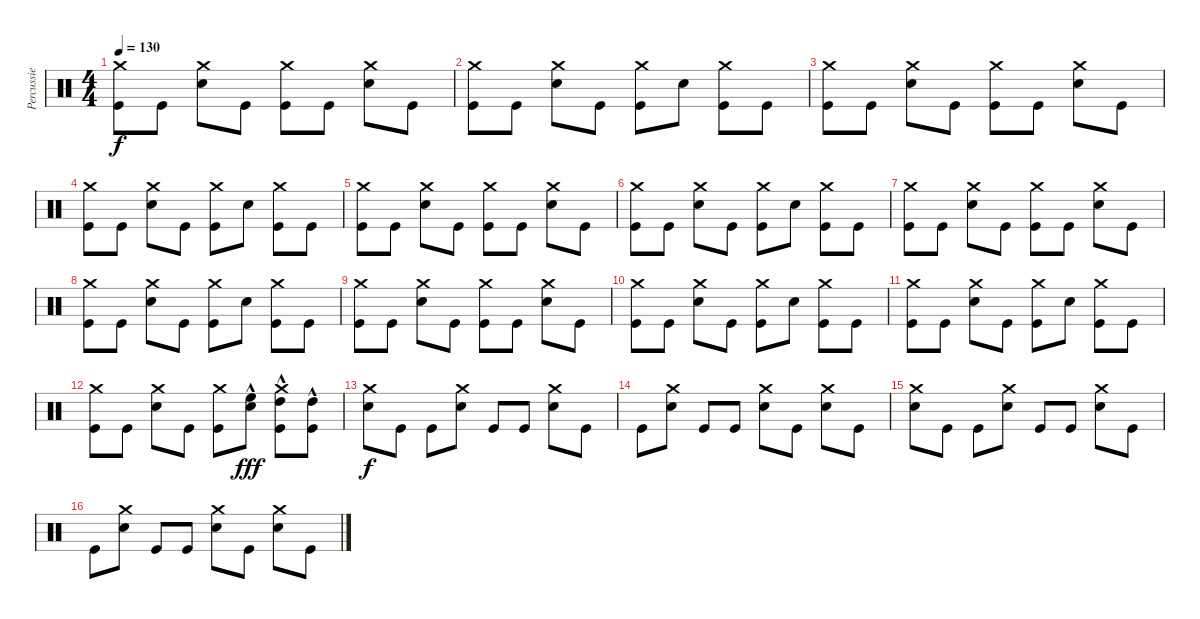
\track ("Percussie" "Percussie") {instrument percussion}
\staff {score}
\articulation defaults
\ts (4 4)
\tempo 130
\clef neutral
\ks c
("Crash medium (hit)" "Kick (hit)").8{dy f} "Kick (hit)".8 ("Crash medium (hit)" "Snare (hit) 2").8 "Kick (hit)".8 ("Crash medium (hit)" "Kick (hit)").8 "Kick (hit)".8 ("Crash medium (hit)" "Snare (hit) 2").8 "Kick (hit)".8 |
("Crash medium (hit)" "Kick (hit)").8 "Kick (hit)".8 ("Crash medium (hit)" "Snare (hit) 2").8 "Kick (hit)".8 ("Crash medium (hit)" "Kick (hit)").8 "Snare (hit) 2".8 ("Crash medium (hit)" "Kick (hit)").8 "Kick (hit)".8 |
("Crash medium (hit)" "Kick (hit)").8 "Kick (hit)".8 ("Crash medium (hit)" "Snare (hit) 2").8 "Kick (hit)".8 ("Crash medium (hit)" "Kick (hit)").8 "Kick (hit)".8 ("Crash medium (hit)" "Snare (hit) 2").8 "Kick (hit)".8 |
("Crash medium (hit)" "Kick (hit)").8 "Kick (hit)".8 ("Crash medium (hit)" "Snare (hit) 2").8 "Kick (hit)".8 ("Crash medium (hit)" "Kick (hit)").8 "Snare (hit) 2".8 ("Crash medium (hit)" "Kick (hit)").8 "Kick (hit)".8 |
("Crash medium (hit)" "Kick (hit)").8 "Kick (hit)".8 ("Crash medium (hit)" "Snare (hit) 2").8 "Kick (hit)".8 ("Crash medium (hit)" "Kick (hit)").8 "Kick (hit)".8 ("Crash medium (hit)" "Snare (hit) 2").8 "Kick (hit)".8 |
("Crash medium (hit)" "Kick (hit)").8 "Kick (hit)".8 ("Crash medium (hit)" "Snare (hit) 2").8 "Kick (hit)".8 ("Crash medium (hit)" "Kick (hit)").8 "Snare (hit) 2".8 ("Crash medium (hit)" "Kick (hit)").8 "Kick (hit)".8 |
("Crash medium (hit)" "Kick (hit)").8 "Kick (hit)".8 ("Crash medium (hit)" "Snare (hit) 2").8 "Kick (hit)".8 ("Crash medium (hit)" "Kick (hit)").8 "Kick (hit)".8 ("Crash medium (hit)" "Snare (hit) 2").8 "Kick (hit)".8 |
("Crash medium (hit)" "Kick (hit)").8 "Kick (hit)".8 ("Crash medium (hit)" "Snare (hit) 2").8 "Kick (hit)".8 ("Crash medium (hit)" "Kick (hit)").8 "Snare (hit) 2".8 ("Crash medium (hit)" "Kick (hit)").8 "Kick (hit)".8 |
("Crash medium (hit)" "Kick (hit)").8 "Kick (hit)".8 ("Crash medium (hit)" "Snare (hit) 2").8 "Kick (hit)".8 ("Crash medium (hit)" "Kick (hit)").8 "Kick (hit)".8 ("Crash medium (hit)" "Snare (hit) 2").8 "Kick (hit)".8 |
("Crash medium (hit)" "Kick (hit)").8 "Kick (hit)".8 ("Crash medium (hit)" "Snare (hit) 2").8 "Kick (hit)".8 ("Crash medium (hit)" "Kick (hit)").8 "Snare (hit) 2".8 ("Crash medium (hit)" "Kick (hit)").8 "Kick (hit)".8 |
("Crash medium (hit)" "Kick (hit)").8 "Kick (hit)".8 ("Crash medium (hit)" "Snare (hit) 2").8 "Kick (hit)".8 ("Crash medium (hit)" "Kick (hit)").8 "Snare (hit) 2".8 ("Crash medium (hit)" "Kick (hit)").8 "Kick (hit)".8 |
("Crash medium (hit)" "Kick (hit)").8 "Kick (hit)".8 ("Crash medium (hit)" "Snare (hit) 2").8 "Kick (hit)".8 ("Crash medium (hit)" "Kick (hit)").8 ("High Floor Tom (hit)"{hac} "Snare (hit) 2").8{dy fff} ("High Tom (hit)"{hac} "Crash medium (hit)" "Kick (hit)").8 ("High Tom (hit)"{hac} "Kick (hit)").8 |
("Crash medium (hit)" "Snare (hit) 2").8{dy f} "Kick (hit)".8 "Kick (hit)".8 ("Crash medium (hit)" "Snare (hit) 2").8 "Kick (hit)".8 "Kick (hit)".8 ("Crash medium (hit)" "Snare (hit) 2").8 "Kick (hit)".8 |
"Kick (hit)".8 ("Crash medium (hit)" "Snare (hit) 2").8 "Kick (hit)".8 "Kick (hit)".8 ("Crash medium (hit)" "Snare (hit) 2").8 "Kick (hit)".8 ("Crash medium (hit)" "Snare (hit) 2").8 "Kick (hit)".8 |
("Crash medium (hit)" "Snare (hit) 2").8 "Kick (hit)".8 "Kick (hit)".8 ("Crash medium (hit)" "Snare (hit) 2").8 "Kick (hit)".8 "Kick (hit)".8 ("Crash medium (hit)" "Snare (hit) 2").8 "Kick (hit)".8 |
"Kick (hit)".8 ("Crash medium (hit)" "Snare (hit) 2").8 "Kick (hit)".8 "Kick (hit)".8 ("Crash medium (hit)" "Snare (hit) 2").8 "Kick (hit)".8 ("Crash medium (hit)" "Snare (hit) 2").8 "Kick (hit)".8
